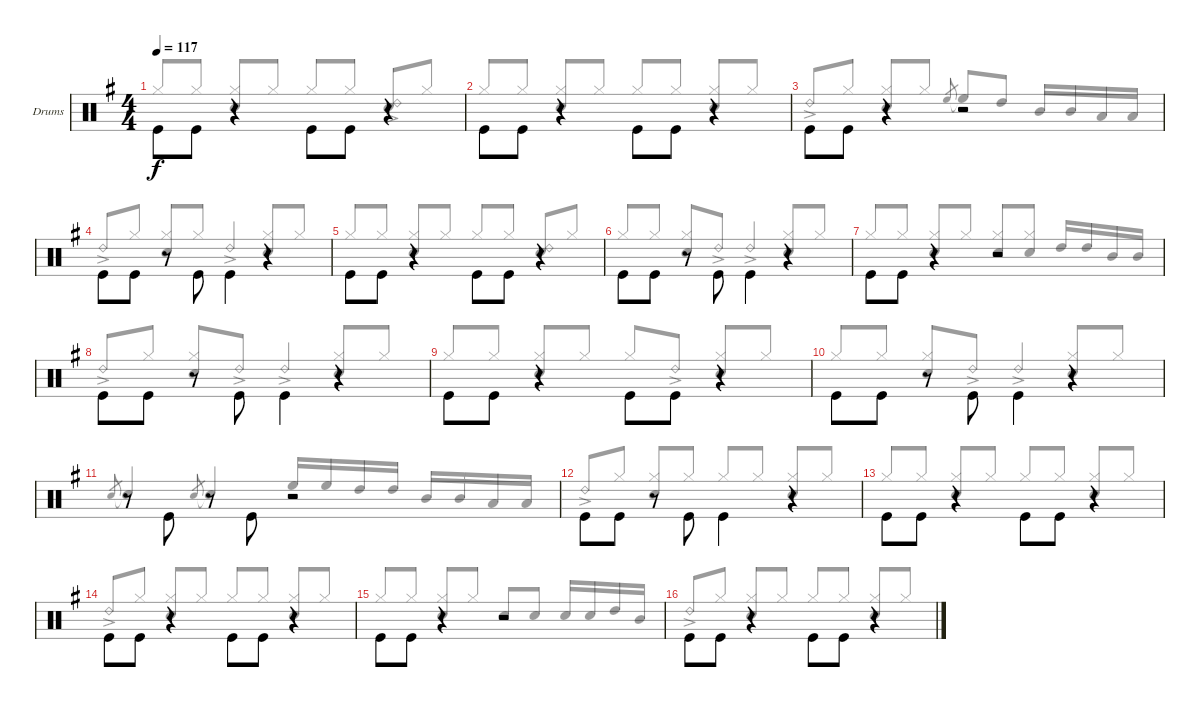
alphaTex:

\defaultSystemsLayout 4
\bracketExtendMode groupsimilarinstruments
\firstSystemTrackNameOrientation horizontal
\otherSystemsTrackNameOrientation horizontal
\track ("Drums" "Drums") {instrument percussion}
\staff {score}
\articulation defaults
\voice
\ts (4 4)
\tempo 117
\clef neutral
\scale
1.04288
\ks g "Kick (hit)".8{dy f beam invert} "Kick (hit)".8
r.4 "Kick (hit)".8{beam invert} "Kick (hit)".8 r.4 |
\scale
0.957125 "Kick (hit)".8{beam invert} "Kick (hit)".8 r.4 "Kick (hit)".8{beam invert} "Kick (hit)".8 r.4 |
\scale
1.04288 "Kick (hit)".8{beam invert} "Kick (hit)".8 r.4 r.2 |
\scale
0.957125 "Kick (hit)".8{beam invert} "Kick (hit)".8 r.8 "Kick (hit)".8{beam invert} "Kick (hit)".4{beam invert} r.4 |
\scale
1.04288 "Kick (hit)".8{beam invert} "Kick (hit)".8 r.4 "Kick (hit)".8{beam invert} "Kick (hit)".8 r.4 |
\scale
0.957125 "Kick (hit)".8{beam invert} "Kick (hit)".8 r.8 "Kick (hit)".8{beam invert} "Kick (hit)".4{beam invert} r.4 |
\scale
1.04288 "Kick (hit)".8{beam invert} "Kick (hit)".8 r.4 r.2 |
\scale
0.957125 "Kick (hit)".8{beam invert} "Kick (hit)".8 r.8 "Kick (hit)".8{beam invert} "Kick (hit)".4{beam invert} r.4 |
\scale
1.04288 "Kick (hit)".8{beam invert} "Kick (hit)".8 r.4 "Kick (hit)".8{beam invert} "Kick (hit)".8 r.4 |
\scale
0.957125 "Kick (hit)".8{beam invert} "Kick (hit)".8 r.8 "Kick (hit)".8{beam invert} "Kick (hit)".4{beam invert} r.4 |
\scale
1.04288 r.8 "Kick (hit)".8{beam invert} r.8{beam invert} "Kick (hit)".8{beam invert} r.2 |
\scale
0.957125 "Kick (hit)".8{beam invert} "Kick (hit)".8 r.8 "Kick (hit)".8{beam invert} "Kick (hit)".4{beam invert} r.4 |
\scale
1.04288 "Kick (hit)".8{beam invert} "Kick (hit)".8 r.4 "Kick (hit)".8{beam invert} "Kick (hit)".8 r.4 |
\scale
0.957125 "Kick (hit)".8{beam invert} "Kick (hit)".8 r.4 "Kick (hit)".8{beam invert} "Kick (hit)".8 r.4 |
\scale
1.04288 "Kick (hit)".8{beam invert} "Kick (hit)".8 r.4 r.2 |
\scale
0.957125 "Kick (hit)".8{beam invert} "Kick (hit)".8 r.4 "Kick (hit)".8{beam invert} "Kick (hit)".8 r.4
\voice
\clef neutral
\ottava regular
\simile none
\scale
1.04288
\ks g "Hi-Hat (closed)".8{dy f beam invert} "Hi-Hat (closed)".8
("Hi-Hat (closed)" "Snare (hit) 2").8{beam invert} "Hi-Hat (closed)".8 "Hi-Hat (closed)".8{beam invert} "Hi-Hat (closed)".8 ("Snare (hit) 2" "Ride (bell) 2"{ac}).8{beam invert} "Hi-Hat (closed)".8 |
\scale
0.957125 "Hi-Hat (closed)".8{beam invert} "Hi-Hat (closed)".8 ("Hi-Hat (closed)" "Snare (hit) 2").8{beam invert} "Hi-Hat (closed)".8 "Hi-Hat (closed)".8{beam invert} "Hi-Hat (closed)".8 ("Hi-Hat (closed)" "Snare (hit) 2").8{beam invert} "Hi-Hat (closed)".8 |
\scale
1.04288 "Ride (bell) 2"{ac}.8{beam invert} "Hi-Hat (closed)".8 ("Hi-Hat (closed)" "Snare (hit) 2").8{beam invert} "Hi-Hat (closed)".8 "High Floor Tom (hit)".8{gr beam invert} "High Floor Tom (hit)"{t}.8{beam invert} "High Tom (hit)".8 "Mid Tom (hit)".16{beam invert} "Mid Tom (hit)".16 "Low Tom (hit)".16 "Low Tom (hit)".16 |
\scale
0.957125 "Ride (bell) 2"{ac}.8{beam invert} "Hi-Hat (closed)".8 ("Hi-Hat (closed)" "Snare (hit) 2").8{beam invert} "Hi-Hat (closed)".8 "Ride (bell) 2"{ac}.4{beam invert} ("Hi-Hat (closed)" "Snare (hit) 2").8{beam invert} "Hi-Hat (closed)".8 |
\scale
1.04288 "Hi-Hat (closed)".8{beam invert} "Hi-Hat (closed)".8 ("Hi-Hat (closed)" "Snare (hit) 2").8{beam invert} "Hi-Hat (closed)".8 "Hi-Hat (closed)".8{beam invert} "Hi-Hat (closed)".8 ("Snare (hit) 2" "Ride (bell) 2").8{beam invert} "Hi-Hat (closed)".8 |
\scale
0.957125 "Hi-Hat (closed)".8{beam invert} "Hi-Hat (closed)".8 ("Hi-Hat (closed)" "Snare (hit) 2").8{beam invert} "Ride (bell) 2"{ac}.8 "Ride (bell) 2"{ac}.4{beam invert} ("Hi-Hat (closed)" "Snare (hit) 2").8{beam invert} "Hi-Hat (closed)".8 |
\scale
1.04288 "Hi-Hat (closed)".8{beam invert} "Hi-Hat (closed)".8 ("Hi-Hat (closed)" "Snare (hit) 2").8{beam invert} "Hi-Hat (closed)".8 ("Hi-Hat (closed)" "Snare (hit) 2").8{beam invert} ("Hi-Hat (closed)" "Snare (hit) 2").8 "High Tom (hit)".16{beam invert} "High Tom (hit)".16 "Mid Tom (hit)".16 "Mid Tom (hit)".16 |
\scale
0.957125 "Ride (bell) 2"{ac}.8{beam invert} "Hi-Hat (closed)".8 ("Hi-Hat (closed)" "Snare (hit) 2").8{beam invert} "Ride (bell) 2"{ac}.8 "Ride (bell) 2"{ac}.4{beam invert} ("Hi-Hat (closed)" "Snare (hit) 2").8{beam invert} "Hi-Hat (closed)".8 |
\scale
1.04288 "Hi-Hat (closed)".8{beam invert} "Hi-Hat (closed)".8 ("Hi-Hat (closed)" "Snare (hit) 2").8{beam invert} "Hi-Hat (closed)".8 "Hi-Hat (closed)".8{beam invert} "Ride (bell) 2"{ac}.8 ("Hi-Hat (closed)" "Snare (hit) 2").8{beam invert} "Hi-Hat (closed)".8 |
\scale
0.957125 "Hi-Hat (closed)".8{beam invert} "Hi-Hat (closed)".8 ("Hi-Hat (closed)" "Snare (hit) 2").8{beam invert} "Ride (bell) 2"{ac}.8 "Ride (bell) 2"{ac}.4{beam invert} ("Hi-Hat (closed)" "Snare (hit) 2").8{beam invert} "Hi-Hat (closed)".8 |
\scale
1.04288 "Snare (hit) 2".8{gr beam invert} "Snare (hit) 2"{t}.4{beam invert} "Snare (hit) 2".8{gr beam invert} "Snare (hit) 2"{t}.4{beam invert} "High Floor Tom (hit)".16{beam invert} "High Floor Tom (hit)".16 "High Tom (hit)".16 "High Tom (hit)".16 "Mid Tom (hit)".16{beam invert} "Mid Tom (hit)".16 "Low Tom (hit)".16 "Low Tom (hit)".16 |
\scale
0.957125 "Ride (bell) 2"{ac}.8{beam invert} "Hi-Hat (closed)".8 ("Hi-Hat (closed)" "Snare (hit) 2").8{beam invert} "Hi-Hat (closed)".8 "Hi-Hat (closed)".8{beam invert} "Hi-Hat (closed)".8 ("Hi-Hat (closed)" "Snare (hit) 2").8{beam invert} "Hi-Hat (closed)".8 |
\scale
1.04288 "Hi-Hat (closed)".8{beam invert} "Hi-Hat (closed)".8 ("Hi-Hat (closed)" "Snare (hit) 2").8{beam invert} "Hi-Hat (closed)".8 "Hi-Hat (closed)".8{beam invert} "Hi-Hat (closed)".8 ("Snare (hit) 2" "Hi-Hat (closed)").8{beam invert} "Hi-Hat (closed)".8 |
\scale
0.957125 "Ride (bell) 2"{ac}.8{beam invert} "Hi-Hat (closed)".8 ("Hi-Hat (closed)" "Snare (hit) 2").8{beam invert} "Hi-Hat (closed)".8 "Hi-Hat (closed)".8{beam invert} "Hi-Hat (closed)".8 ("Hi-Hat (closed)" "Snare (hit) 2").8{beam invert} "Hi-Hat (closed)".8 |
\scale
1.04288 "Hi-Hat (closed)".8{beam invert} "Hi-Hat (closed)".8 ("Hi-Hat (closed)" "Snare (hit) 2").8{beam invert} "Hi-Hat (closed)".8 "Snare (hit) 2".8{beam invert} "Snare (hit) 2".8 "Snare (hit) 2".16{beam invert} "Snare (hit) 2".16 "High Tom (hit)".16 "Mid Tom (hit)".16 |
\scale
0.957125 "Ride (bell) 2"{ac}.8{beam invert} "Hi-Hat (closed)".8 ("Hi-Hat (closed)" "Snare (hit) 2").8{beam invert} "Hi-Hat (closed)".8 "Hi-Hat (closed)".8{beam invert} "Hi-Hat (closed)".8 ("Hi-Hat (closed)" "Snare (hit) 2").8{beam invert} "Hi-Hat (closed)".8
